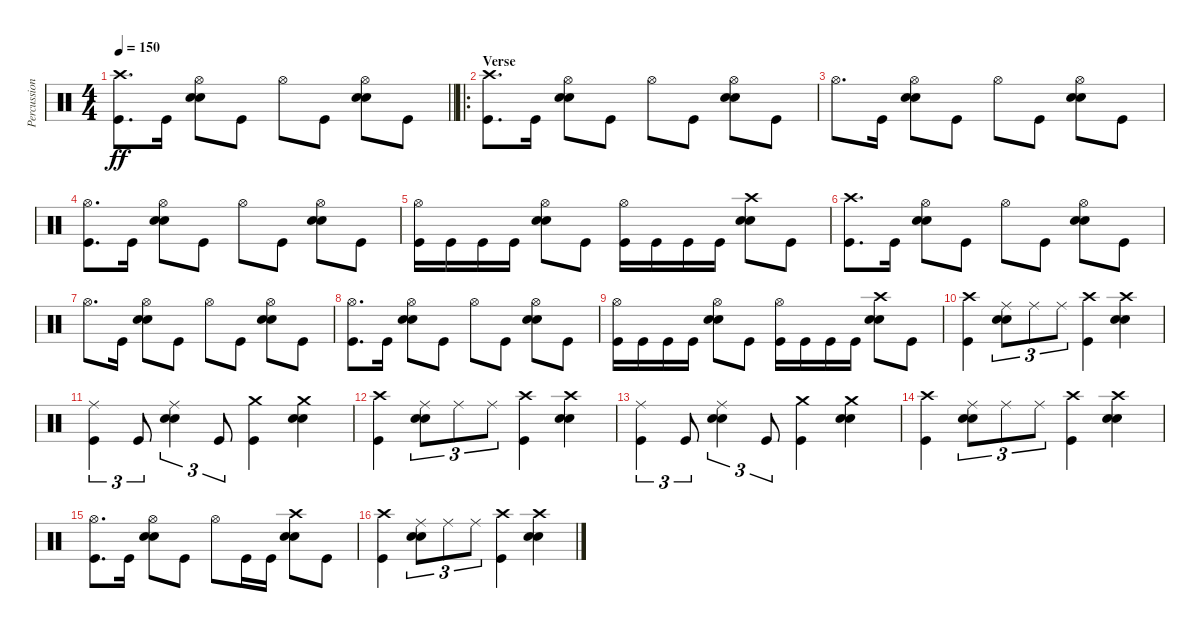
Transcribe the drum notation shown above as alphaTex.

\track ("Percussion" "Percussion") {instrument percussion}
\staff {score}
\articulation defaults
\ts (4 4)
\tempo 150
\clef neutral
\barLineRight lightlight
\ks c
("Crash high (hit)" "Kick (hit)").8{d dy ff} "Kick (hit)".16 ("Hi-Hat (open)" "Snare (hit) 2" "Electric Snare (hit)").8 "Kick (hit)".8 "Hi-Hat (open)".8 "Kick (hit)".8 ("Hi-Hat (open)" "Snare (hit) 2" "Electric Snare (hit)").8 "Kick (hit)".8 |
\ro
\section ("" "Verse")
("Crash high (hit)" "Kick (hit)").8{d} "Kick (hit)".16 ("Hi-Hat (open)" "Snare (hit) 2" "Electric Snare (hit)").8 "Kick (hit)".8 "Hi-Hat (open)".8 "Kick (hit)".8 ("Hi-Hat (open)" "Snare (hit) 2" "Electric Snare (hit)").8 "Kick (hit)".8 |
"Hi-Hat (open)".8{d} "Kick (hit)".16 ("Hi-Hat (open)" "Snare (hit) 2" "Electric Snare (hit)").8 "Kick (hit)".8 "Hi-Hat (open)".8 "Kick (hit)".8 ("Hi-Hat (open)" "Snare (hit) 2" "Electric Snare (hit)").8 "Kick (hit)".8 |
("Hi-Hat (open)" "Kick (hit)").8{d} "Kick (hit)".16 ("Hi-Hat (open)" "Snare (hit) 2" "Electric Snare (hit)").8 "Kick (hit)".8 "Hi-Hat (open)".8 "Kick (hit)".8 ("Hi-Hat (open)" "Snare (hit) 2" "Electric Snare (hit)").8 "Kick (hit)".8 |
("Hi-Hat (open)" "Kick (hit)").16 "Kick (hit)".16 "Kick (hit)".16 "Kick (hit)".16 ("Hi-Hat (open)" "Snare (hit) 2" "Electric Snare (hit)").8 "Kick (hit)".8 ("Hi-Hat (open)" "Kick (hit)").16 "Kick (hit)".16 "Kick (hit)".16 "Kick (hit)".16 ("Crash high (hit)" "Snare (hit) 2" "Electric Snare (hit)").8 "Kick (hit)".8 |
("Crash high (hit)" "Kick (hit)").8{d} "Kick (hit)".16 ("Hi-Hat (open)" "Snare (hit) 2" "Electric Snare (hit)").8 "Kick (hit)".8 "Hi-Hat (open)".8 "Kick (hit)".8 ("Hi-Hat (open)" "Snare (hit) 2" "Electric Snare (hit)").8 "Kick (hit)".8 |
"Hi-Hat (open)".8{d} "Kick (hit)".16 ("Hi-Hat (open)" "Snare (hit) 2" "Electric Snare (hit)").8 "Kick (hit)".8 "Hi-Hat (open)".8 "Kick (hit)".8 ("Hi-Hat (open)" "Snare (hit) 2" "Electric Snare (hit)").8 "Kick (hit)".8 |
("Hi-Hat (open)" "Kick (hit)").8{d} "Kick (hit)".16 ("Hi-Hat (open)" "Snare (hit) 2" "Electric Snare (hit)").8 "Kick (hit)".8 "Hi-Hat (open)".8 "Kick (hit)".8 ("Hi-Hat (open)" "Snare (hit) 2" "Electric Snare (hit)").8 "Kick (hit)".8 |
("Hi-Hat (open)" "Kick (hit)").16 "Kick (hit)".16 "Kick (hit)".16 "Kick (hit)".16 ("Hi-Hat (open)" "Snare (hit) 2" "Electric Snare (hit)").8 "Kick (hit)".8 ("Hi-Hat (open)" "Kick (hit)").16 "Kick (hit)".16 "Kick (hit)".16 "Kick (hit)".16 ("Crash high (hit)" "Snare (hit) 2" "Electric Snare (hit)").8 "Kick (hit)".8 |
("Crash high (hit)" "Kick (hit)").4 ("Ride (middle)" "Snare (hit) 2" "Electric Snare (hit)").8{tu (3 2)} "Ride (middle)".8{tu (3 2)} "Ride (middle)".8{tu (3 2)} ("Crash high (hit)" "Kick (hit)").4 ("Crash high (hit)" "Snare (hit) 2" "Electric Snare (hit)").4 |
("Ride (middle)" "Kick (hit)").4{tu (3 2)} "Kick (hit)".8{tu (3 2)} ("Ride (middle)" "Snare (hit) 2" "Electric Snare (hit)").4{tu (3 2)} "Kick (hit)".8{tu (3 2)} ("Crash medium (hit)" "Kick (hit)").4 ("Crash medium (hit)" "Snare (hit) 2" "Electric Snare (hit)").4 |
("Crash high (hit)" "Kick (hit)").4 ("Ride (middle)" "Snare (hit) 2" "Electric Snare (hit)").8{tu (3 2)} "Ride (middle)".8{tu (3 2)} "Ride (middle)".8{tu (3 2)} ("Crash high (hit)" "Kick (hit)").4 ("Crash high (hit)" "Snare (hit) 2" "Electric Snare (hit)").4 |
("Ride (middle)" "Kick (hit)").4{tu (3 2)} "Kick (hit)".8{tu (3 2)} ("Ride (middle)" "Snare (hit) 2" "Electric Snare (hit)").4{tu (3 2)} "Kick (hit)".8{tu (3 2)} ("Crash medium (hit)" "Kick (hit)").4 ("Crash medium (hit)" "Snare (hit) 2" "Electric Snare (hit)").4 |
("Crash high (hit)" "Kick (hit)").4 ("Ride (middle)" "Snare (hit) 2" "Electric Snare (hit)").8{tu (3 2)} "Ride (middle)".8{tu (3 2)} "Ride (middle)".8{tu (3 2)} ("Crash high (hit)" "Kick (hit)").4 ("Crash high (hit)" "Snare (hit) 2" "Electric Snare (hit)").4 |
("Hi-Hat (open)" "Kick (hit)").8{d} "Kick (hit)".16 ("Hi-Hat (open)" "Snare (hit) 2" "Electric Snare (hit)").8 "Kick (hit)".8 "Hi-Hat (open)".8 "Kick (hit)".16 "Kick (hit)".16 ("Crash high (hit)" "Snare (hit) 2" "Electric Snare (hit)").8 "Kick (hit)".8 |
("Crash high (hit)" "Kick (hit)").4 ("Ride (middle)" "Snare (hit) 2" "Electric Snare (hit)").8{tu (3 2)} "Ride (middle)".8{tu (3 2)} "Ride (middle)".8{tu (3 2)} ("Crash high (hit)" "Kick (hit)").4 ("Crash high (hit)" "Snare (hit) 2" "Electric Snare (hit)").4
